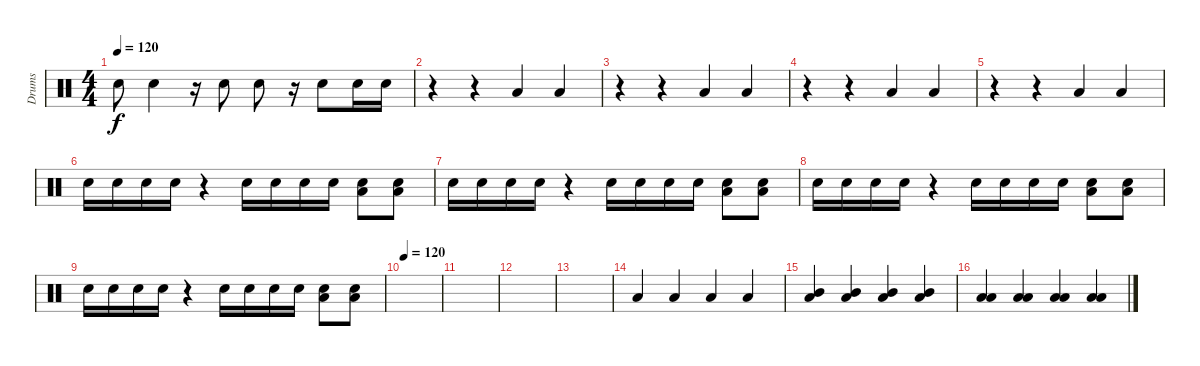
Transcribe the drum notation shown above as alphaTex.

\track ("Drums" "Drums") {instrument percussion}
\staff {score}
\articulation defaults
\ts (4 4)
\tempo 120
\clef neutral
\ks c "Snare (hit) 2".8{dy f} "Snare (hit) 2".4
r.16 "Snare (hit) 2".8 "Snare (hit) 2".8 r.16 "Snare (hit) 2".8 "Snare (hit) 2".16 "Snare (hit) 2".16 |
r.4 r.4 "Low Tom (hit)".4 "Low Tom (hit)".4 |
r.4 r.4 "Low Tom (hit)".4 "Low Tom (hit)".4 |
r.4 r.4 "Low Tom (hit)".4 "Low Tom (hit)".4 |
r.4 r.4 "Low Tom (hit)".4 "Low Tom (hit)".4 |
"Snare (hit) 2".16 "Snare (hit) 2".16 "Snare (hit) 2".16 "Snare (hit) 2".16 r.4 "Snare (hit) 2".16 "Snare (hit) 2".16 "Snare (hit) 2".16 "Snare (hit) 2".16 ("Low Tom (hit)" "Snare (hit) 2").8 ("Low Tom (hit)" "Snare (hit) 2").8 |
"Snare (hit) 2".16 "Snare (hit) 2".16 "Snare (hit) 2".16 "Snare (hit) 2".16 r.4 "Snare (hit) 2".16 "Snare (hit) 2".16 "Snare (hit) 2".16 "Snare (hit) 2".16 ("Low Tom (hit)" "Snare (hit) 2").8 ("Low Tom (hit)" "Snare (hit) 2").8 |
"Snare (hit) 2".16 "Snare (hit) 2".16 "Snare (hit) 2".16 "Snare (hit) 2".16 r.4 "Snare (hit) 2".16 "Snare (hit) 2".16 "Snare (hit) 2".16 "Snare (hit) 2".16 ("Low Tom (hit)" "Snare (hit) 2").8 ("Low Tom (hit)" "Snare (hit) 2").8 |
"Snare (hit) 2".16 "Snare (hit) 2".16 "Snare (hit) 2".16 "Snare (hit) 2".16 r.4 "Snare (hit) 2".16 "Snare (hit) 2".16 "Snare (hit) 2".16 "Snare (hit) 2".16 ("Low Tom (hit)" "Snare (hit) 2").8 ("Low Tom (hit)" "Snare (hit) 2").8 |
\tempo 120
|
|
|
|
"Low Tom (hit)".4 "Low Tom (hit)".4 "Low Tom (hit)".4 "Low Tom (hit)".4 |
("Low Tom (hit)" "Mid Tom (hit)").4 ("Low Tom (hit)" "Mid Tom (hit)").4 ("Low Tom (hit)" "Mid Tom (hit)").4 ("Low Tom (hit)" "Mid Tom (hit)").4 |
("Low Tom (hit)" "Low Tom (hit)").4 ("Low Tom (hit)" "Low Tom (hit)").4 ("Low Tom (hit)" "Low Tom (hit)").4 ("Low Tom (hit)" "Low Tom (hit)").4
